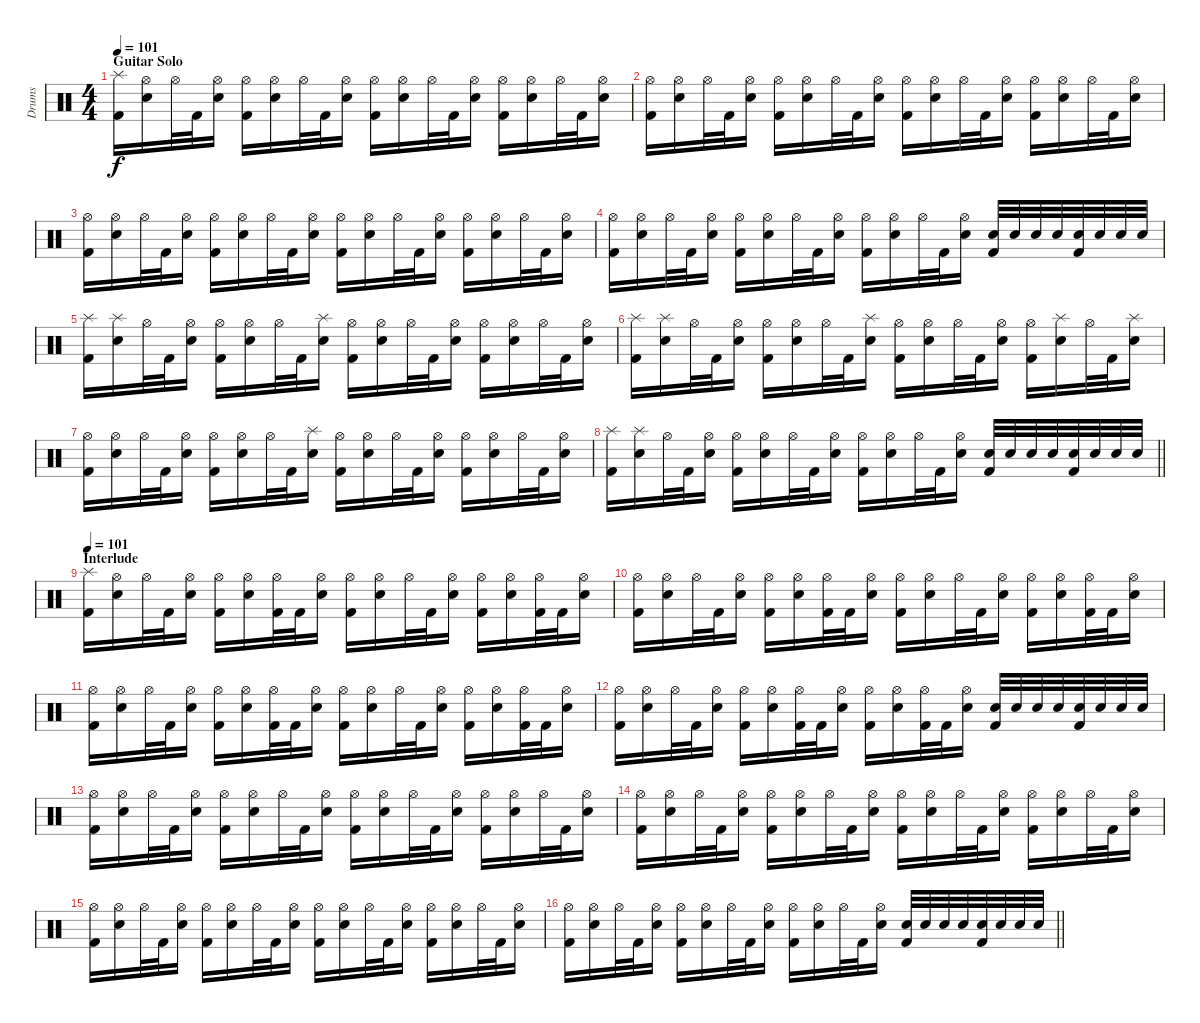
\track ("Drums" "Drums") {instrument percussion}
\staff {score}
\articulation defaults
\ts (4 4)
\section ("" "Guitar Solo")
\tempo 101
\clef neutral
\ks c
("Splash (hit)" "Kick (hit) 2").16{dy f} ("Hi-Hat (open)" "Electric Snare (hit)").16 "Hi-Hat (open)".32 "Kick (hit) 2".32 ("Hi-Hat (open)" "Electric Snare (hit)").16 ("Hi-Hat (open)" "Kick (hit) 2").16 ("Hi-Hat (open)" "Electric Snare (hit)").16 "Hi-Hat (open)".32 "Kick (hit) 2".32 ("Hi-Hat (open)" "Electric Snare (hit)").16 ("Hi-Hat (open)" "Kick (hit) 2").16 ("Hi-Hat (open)" "Electric Snare (hit)").16 "Hi-Hat (open)".32 "Kick (hit) 2".32 ("Hi-Hat (open)" "Electric Snare (hit)").16 ("Hi-Hat (open)" "Kick (hit) 2").16 ("Hi-Hat (open)" "Electric Snare (hit)").16 "Hi-Hat (open)".32 "Kick (hit) 2".32 ("Hi-Hat (open)" "Electric Snare (hit)").16 |
("Hi-Hat (open)" "Kick (hit) 2").16 ("Hi-Hat (open)" "Electric Snare (hit)").16 "Hi-Hat (open)".32 "Kick (hit) 2".32 ("Hi-Hat (open)" "Electric Snare (hit)").16 ("Hi-Hat (open)" "Kick (hit) 2").16 ("Hi-Hat (open)" "Electric Snare (hit)").16 "Hi-Hat (open)".32 "Kick (hit) 2".32 ("Hi-Hat (open)" "Electric Snare (hit)").16 ("Hi-Hat (open)" "Kick (hit) 2").16 ("Hi-Hat (open)" "Electric Snare (hit)").16 "Hi-Hat (open)".32 "Kick (hit) 2".32 ("Hi-Hat (open)" "Electric Snare (hit)").16 ("Hi-Hat (open)" "Kick (hit) 2").16 ("Hi-Hat (open)" "Electric Snare (hit)").16 "Hi-Hat (open)".32 "Kick (hit) 2".32 ("Hi-Hat (open)" "Electric Snare (hit)").16 |
("Hi-Hat (open)" "Kick (hit) 2").16 ("Hi-Hat (open)" "Electric Snare (hit)").16 "Hi-Hat (open)".32 "Kick (hit) 2".32 ("Hi-Hat (open)" "Electric Snare (hit)").16 ("Hi-Hat (open)" "Kick (hit) 2").16 ("Hi-Hat (open)" "Electric Snare (hit)").16 "Hi-Hat (open)".32 "Kick (hit) 2".32 ("Hi-Hat (open)" "Electric Snare (hit)").16 ("Hi-Hat (open)" "Kick (hit) 2").16 ("Hi-Hat (open)" "Electric Snare (hit)").16 "Hi-Hat (open)".32 "Kick (hit) 2".32 ("Hi-Hat (open)" "Electric Snare (hit)").16 ("Hi-Hat (open)" "Kick (hit) 2").16 ("Hi-Hat (open)" "Electric Snare (hit)").16 "Hi-Hat (open)".32 "Kick (hit) 2".32 ("Hi-Hat (open)" "Electric Snare (hit)").16 |
("Hi-Hat (open)" "Kick (hit) 2").16 ("Hi-Hat (open)" "Electric Snare (hit)").16 "Hi-Hat (open)".32 "Kick (hit) 2".32 ("Hi-Hat (open)" "Electric Snare (hit)").16 ("Hi-Hat (open)" "Kick (hit) 2").16 ("Hi-Hat (open)" "Electric Snare (hit)").16 "Hi-Hat (open)".32 "Kick (hit) 2".32 ("Hi-Hat (open)" "Electric Snare (hit)").16 ("Hi-Hat (open)" "Kick (hit) 2").16 ("Hi-Hat (open)" "Electric Snare (hit)").16 "Hi-Hat (open)".32 "Kick (hit) 2".32 ("Hi-Hat (open)" "Electric Snare (hit)").16 ("Electric Snare (hit)" "Kick (hit) 2").32 "Electric Snare (hit)".32 "Electric Snare (hit)".32 "Electric Snare (hit)".32 ("Electric Snare (hit)" "Kick (hit) 2").32 "Electric Snare (hit)".32 "Electric Snare (hit)".32 "Electric Snare (hit)".32 |
("Splash (hit)" "Kick (hit) 2").16 ("Splash (hit)" "Electric Snare (hit)").16 "Hi-Hat (open)".32 "Kick (hit) 2".32 ("Hi-Hat (open)" "Electric Snare (hit)").16 ("Hi-Hat (open)" "Kick (hit) 2").16 ("Hi-Hat (open)" "Electric Snare (hit)").16 "Hi-Hat (open)".32 "Kick (hit) 2".32 ("Splash (hit)" "Electric Snare (hit)").16 ("Hi-Hat (open)" "Kick (hit) 2").16 ("Hi-Hat (open)" "Electric Snare (hit)").16 "Hi-Hat (open)".32 "Kick (hit) 2".32 ("Hi-Hat (open)" "Electric Snare (hit)").16 ("Hi-Hat (open)" "Kick (hit) 2").16 ("Hi-Hat (open)" "Electric Snare (hit)").16 "Hi-Hat (open)".32 "Kick (hit) 2".32 ("Hi-Hat (open)" "Electric Snare (hit)").16 |
("Splash (hit)" "Kick (hit) 2").16 ("Splash (hit)" "Electric Snare (hit)").16 "Hi-Hat (open)".32 "Kick (hit) 2".32 ("Hi-Hat (open)" "Electric Snare (hit)").16 ("Hi-Hat (open)" "Kick (hit) 2").16 ("Hi-Hat (open)" "Electric Snare (hit)").16 "Hi-Hat (open)".32 "Kick (hit) 2".32 ("Splash (hit)" "Electric Snare (hit)").16 ("Hi-Hat (open)" "Kick (hit) 2").16 ("Hi-Hat (open)" "Electric Snare (hit)").16 "Hi-Hat (open)".32 "Kick (hit) 2".32 ("Hi-Hat (open)" "Electric Snare (hit)").16 ("Hi-Hat (open)" "Kick (hit) 2").16 ("Splash (hit)" "Electric Snare (hit)").16 "Hi-Hat (open)".32 "Kick (hit) 2".32 ("Splash (hit)" "Electric Snare (hit)").16 |
("Hi-Hat (open)" "Kick (hit) 2").16 ("Hi-Hat (open)" "Electric Snare (hit)").16 "Hi-Hat (open)".32 "Kick (hit) 2".32 ("Hi-Hat (open)" "Electric Snare (hit)").16 ("Hi-Hat (open)" "Kick (hit) 2").16 ("Hi-Hat (open)" "Electric Snare (hit)").16 "Hi-Hat (open)".32 "Kick (hit) 2".32 ("Splash (hit)" "Electric Snare (hit)").16 ("Hi-Hat (open)" "Kick (hit) 2").16 ("Hi-Hat (open)" "Electric Snare (hit)").16 "Hi-Hat (open)".32 "Kick (hit) 2".32 ("Hi-Hat (open)" "Electric Snare (hit)").16 ("Hi-Hat (open)" "Kick (hit) 2").16 ("Hi-Hat (open)" "Electric Snare (hit)").16 "Hi-Hat (open)".32 "Kick (hit) 2".32 ("Hi-Hat (open)" "Electric Snare (hit)").16 |
\barLineRight lightlight
("Splash (hit)" "Kick (hit) 2").16 ("Splash (hit)" "Electric Snare (hit)").16 "Hi-Hat (open)".32 "Kick (hit) 2".32 ("Hi-Hat (open)" "Electric Snare (hit)").16 ("Hi-Hat (open)" "Kick (hit) 2").16 ("Hi-Hat (open)" "Electric Snare (hit)").16 "Hi-Hat (open)".32 "Kick (hit) 2".32 ("Hi-Hat (open)" "Electric Snare (hit)").16 ("Hi-Hat (open)" "Kick (hit) 2").16 ("Hi-Hat (open)" "Electric Snare (hit)").16 "Hi-Hat (open)".32 "Kick (hit) 2".32 ("Hi-Hat (open)" "Electric Snare (hit)").16 ("Electric Snare (hit)" "Kick (hit) 2").32 "Electric Snare (hit)".32 "Electric Snare (hit)".32 "Electric Snare (hit)".32 ("Electric Snare (hit)" "Kick (hit) 2").32 "Electric Snare (hit)".32 "Electric Snare (hit)".32 "Electric Snare (hit)".32 |
\section ("" "Interlude")
\tempo 101
("Splash (hit)" "Kick (hit) 2").16 ("Hi-Hat (open)" "Electric Snare (hit)").16 "Hi-Hat (open)".32 "Kick (hit) 2".32 ("Hi-Hat (open)" "Electric Snare (hit)").16 ("Hi-Hat (open)" "Kick (hit) 2").16 ("Hi-Hat (open)" "Electric Snare (hit)").16 ("Hi-Hat (open)" "Kick (hit) 2").32 "Kick (hit) 2".32 ("Hi-Hat (open)" "Electric Snare (hit)").16 ("Hi-Hat (open)" "Kick (hit) 2").16 ("Hi-Hat (open)" "Electric Snare (hit)").16 "Hi-Hat (open)".32 "Kick (hit) 2".32 ("Hi-Hat (open)" "Electric Snare (hit)").16 ("Hi-Hat (open)" "Kick (hit) 2").16 ("Hi-Hat (open)" "Electric Snare (hit)").16 ("Hi-Hat (open)" "Kick (hit) 2").32 "Kick (hit) 2".32 ("Hi-Hat (open)" "Electric Snare (hit)").16 |
("Hi-Hat (open)" "Kick (hit) 2").16 ("Hi-Hat (open)" "Electric Snare (hit)").16 "Hi-Hat (open)".32 "Kick (hit) 2".32 ("Hi-Hat (open)" "Electric Snare (hit)").16 ("Hi-Hat (open)" "Kick (hit) 2").16 ("Hi-Hat (open)" "Electric Snare (hit)").16 ("Hi-Hat (open)" "Kick (hit) 2").32 "Kick (hit) 2".32 ("Hi-Hat (open)" "Electric Snare (hit)").16 ("Hi-Hat (open)" "Kick (hit) 2").16 ("Hi-Hat (open)" "Electric Snare (hit)").16 "Hi-Hat (open)".32 "Kick (hit) 2".32 ("Hi-Hat (open)" "Electric Snare (hit)").16 ("Hi-Hat (open)" "Kick (hit) 2").16 ("Hi-Hat (open)" "Electric Snare (hit)").16 ("Hi-Hat (open)" "Kick (hit) 2").32 "Kick (hit) 2".32 ("Hi-Hat (open)" "Electric Snare (hit)").16 |
("Hi-Hat (open)" "Kick (hit) 2").16 ("Hi-Hat (open)" "Electric Snare (hit)").16 "Hi-Hat (open)".32 "Kick (hit) 2".32 ("Hi-Hat (open)" "Electric Snare (hit)").16 ("Hi-Hat (open)" "Kick (hit) 2").16 ("Hi-Hat (open)" "Electric Snare (hit)").16 ("Hi-Hat (open)" "Kick (hit) 2").32 "Kick (hit) 2".32 ("Hi-Hat (open)" "Electric Snare (hit)").16 ("Hi-Hat (open)" "Kick (hit) 2").16 ("Hi-Hat (open)" "Electric Snare (hit)").16 "Hi-Hat (open)".32 "Kick (hit) 2".32 ("Hi-Hat (open)" "Electric Snare (hit)").16 ("Hi-Hat (open)" "Kick (hit) 2").16 ("Hi-Hat (open)" "Electric Snare (hit)").16 ("Hi-Hat (open)" "Kick (hit) 2").32 "Kick (hit) 2".32 ("Hi-Hat (open)" "Electric Snare (hit)").16 |
("Hi-Hat (open)" "Kick (hit) 2").16 ("Hi-Hat (open)" "Electric Snare (hit)").16 "Hi-Hat (open)".32 "Kick (hit) 2".32 ("Hi-Hat (open)" "Electric Snare (hit)").16 ("Hi-Hat (open)" "Kick (hit) 2").16 ("Hi-Hat (open)" "Electric Snare (hit)").16 ("Hi-Hat (open)" "Kick (hit) 2").32 "Kick (hit) 2".32 ("Hi-Hat (open)" "Electric Snare (hit)").16 ("Hi-Hat (open)" "Kick (hit) 2").16 ("Hi-Hat (open)" "Electric Snare (hit)").16 ("Hi-Hat (open)" "Kick (hit) 2").32 "Kick (hit) 2".32 ("Hi-Hat (open)" "Electric Snare (hit)").16 ("Electric Snare (hit)" "Kick (hit) 2").32 "Electric Snare (hit)".32 "Electric Snare (hit)".32 "Electric Snare (hit)".32 ("Electric Snare (hit)" "Kick (hit) 2").32 "Electric Snare (hit)".32 "Electric Snare (hit)".32 "Electric Snare (hit)".32 |
("Hi-Hat (open)" "Kick (hit) 2").16 ("Hi-Hat (open)" "Electric Snare (hit)").16 "Hi-Hat (open)".32 "Kick (hit) 2".32 ("Hi-Hat (open)" "Electric Snare (hit)").16 ("Hi-Hat (open)" "Kick (hit) 2").16 ("Hi-Hat (open)" "Electric Snare (hit)").16 "Hi-Hat (open)".32 "Kick (hit) 2".32 ("Hi-Hat (open)" "Electric Snare (hit)").16 ("Hi-Hat (open)" "Kick (hit) 2").16 ("Hi-Hat (open)" "Electric Snare (hit)").16 "Hi-Hat (open)".32 "Kick (hit) 2".32 ("Hi-Hat (open)" "Electric Snare (hit)").16 ("Hi-Hat (open)" "Kick (hit) 2").16 ("Hi-Hat (open)" "Electric Snare (hit)").16 "Hi-Hat (open)".32 "Kick (hit) 2".32 ("Hi-Hat (open)" "Electric Snare (hit)").16 |
("Hi-Hat (open)" "Kick (hit) 2").16 ("Hi-Hat (open)" "Electric Snare (hit)").16 "Hi-Hat (open)".32 "Kick (hit) 2".32 ("Hi-Hat (open)" "Electric Snare (hit)").16 ("Hi-Hat (open)" "Kick (hit) 2").16 ("Hi-Hat (open)" "Electric Snare (hit)").16 "Hi-Hat (open)".32 "Kick (hit) 2".32 ("Hi-Hat (open)" "Electric Snare (hit)").16 ("Hi-Hat (open)" "Kick (hit) 2").16 ("Hi-Hat (open)" "Electric Snare (hit)").16 "Hi-Hat (open)".32 "Kick (hit) 2".32 ("Hi-Hat (open)" "Electric Snare (hit)").16 ("Hi-Hat (open)" "Kick (hit) 2").16 ("Hi-Hat (open)" "Electric Snare (hit)").16 "Hi-Hat (open)".32 "Kick (hit) 2".32 ("Hi-Hat (open)" "Electric Snare (hit)").16 |
("Hi-Hat (open)" "Kick (hit) 2").16 ("Hi-Hat (open)" "Electric Snare (hit)").16 "Hi-Hat (open)".32 "Kick (hit) 2".32 ("Hi-Hat (open)" "Electric Snare (hit)").16 ("Hi-Hat (open)" "Kick (hit) 2").16 ("Hi-Hat (open)" "Electric Snare (hit)").16 "Hi-Hat (open)".32 "Kick (hit) 2".32 ("Hi-Hat (open)" "Electric Snare (hit)").16 ("Hi-Hat (open)" "Kick (hit) 2").16 ("Hi-Hat (open)" "Electric Snare (hit)").16 "Hi-Hat (open)".32 "Kick (hit) 2".32 ("Hi-Hat (open)" "Electric Snare (hit)").16 ("Hi-Hat (open)" "Kick (hit) 2").16 ("Hi-Hat (open)" "Electric Snare (hit)").16 "Hi-Hat (open)".32 "Kick (hit) 2".32 ("Hi-Hat (open)" "Electric Snare (hit)").16 |
\barLineRight lightlight
("Hi-Hat (open)" "Kick (hit) 2").16 ("Hi-Hat (open)" "Electric Snare (hit)").16 "Hi-Hat (open)".32 "Kick (hit) 2".32 ("Hi-Hat (open)" "Electric Snare (hit)").16 ("Hi-Hat (open)" "Kick (hit) 2").16 ("Hi-Hat (open)" "Electric Snare (hit)").16 "Hi-Hat (open)".32 "Kick (hit) 2".32 ("Hi-Hat (open)" "Electric Snare (hit)").16 ("Hi-Hat (open)" "Kick (hit) 2").16 ("Hi-Hat (open)" "Electric Snare (hit)").16 "Hi-Hat (open)".32 "Kick (hit) 2".32 ("Hi-Hat (open)" "Electric Snare (hit)").16 ("Electric Snare (hit)" "Kick (hit) 2").32 "Electric Snare (hit)".32 "Electric Snare (hit)".32 "Electric Snare (hit)".32 ("Electric Snare (hit)" "Kick (hit) 2").32 "Electric Snare (hit)".32 "Electric Snare (hit)".32 "Electric Snare (hit)".32
